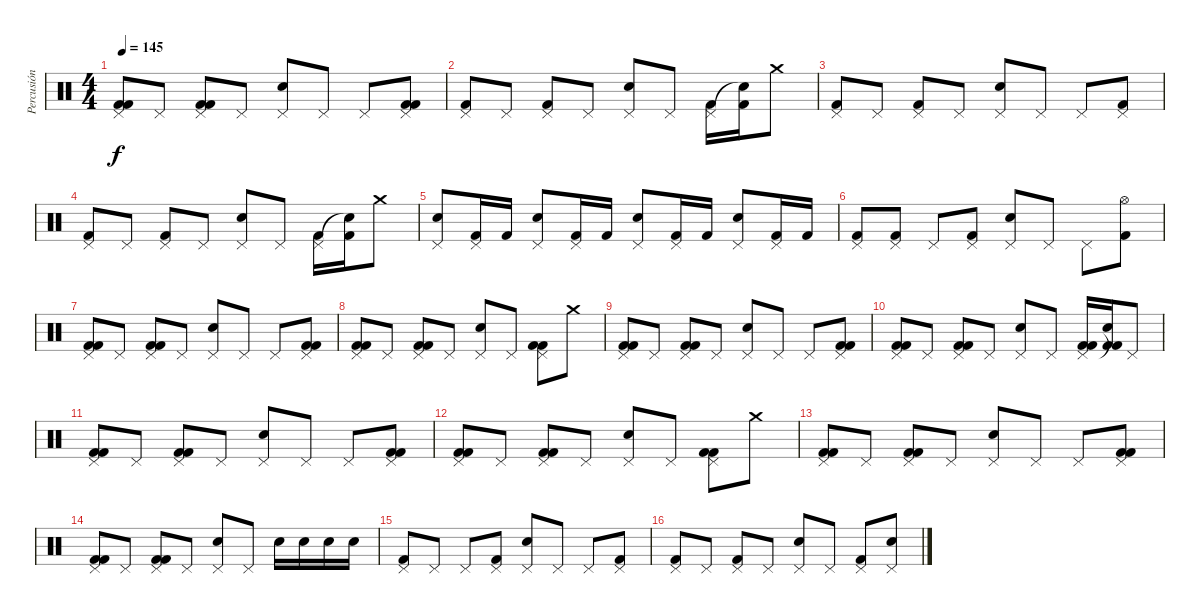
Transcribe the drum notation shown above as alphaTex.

\track ("Percusión" "Percusión") {instrument percussion}
\staff {score}
\articulation defaults
\ts (4 4)
\tempo 145
\clef neutral
\ks c
("Pedal Hi-Hat (hit)" "Kick (hit) 2" "Kick (hit) 2").8{dy f} "Pedal Hi-Hat (hit)".8 ("Pedal Hi-Hat (hit)" "Kick (hit) 2" "Kick (hit) 2").8 "Pedal Hi-Hat (hit)".8 ("Pedal Hi-Hat (hit)" "Snare (hit) 2").8 "Pedal Hi-Hat (hit)".8 "Pedal Hi-Hat (hit)".8 ("Pedal Hi-Hat (hit)" "Kick (hit) 2" "Kick (hit) 2").8 |
("Pedal Hi-Hat (hit)" "Kick (hit) 2").8 "Pedal Hi-Hat (hit)".8 ("Pedal Hi-Hat (hit)" "Kick (hit) 2").8 "Pedal Hi-Hat (hit)".8 ("Pedal Hi-Hat (hit)" "Snare (hit) 2").8 "Pedal Hi-Hat (hit)".8 ("Pedal Hi-Hat (hit)" "Kick (hit) 2").16 ("Snare (hit)"{t} "Kick (hit) 2").16 "Crash medium (hit)".8 |
("Pedal Hi-Hat (hit)" "Kick (hit) 2").8 "Pedal Hi-Hat (hit)".8 ("Pedal Hi-Hat (hit)" "Kick (hit) 2").8 "Pedal Hi-Hat (hit)".8 ("Pedal Hi-Hat (hit)" "Snare (hit) 2").8 "Pedal Hi-Hat (hit)".8 "Pedal Hi-Hat (hit)".8 ("Pedal Hi-Hat (hit)" "Kick (hit) 2").8 |
("Pedal Hi-Hat (hit)" "Kick (hit) 2").8 "Pedal Hi-Hat (hit)".8 ("Pedal Hi-Hat (hit)" "Kick (hit) 2").8 "Pedal Hi-Hat (hit)".8 ("Pedal Hi-Hat (hit)" "Snare (hit) 2").8 "Pedal Hi-Hat (hit)".8 ("Pedal Hi-Hat (hit)" "Kick (hit) 2").16 ("Snare (hit)"{t} "Kick (hit) 2").16 "Crash medium (hit)".8 |
("Pedal Hi-Hat (hit)" "Snare (hit) 2").8 ("Pedal Hi-Hat (hit)" "Kick (hit) 2").16 "Kick (hit) 2".16 ("Pedal Hi-Hat (hit)" "Snare (hit) 2").8 ("Pedal Hi-Hat (hit)" "Kick (hit) 2").16 "Kick (hit) 2".16 ("Pedal Hi-Hat (hit)" "Snare (hit) 2").8 ("Pedal Hi-Hat (hit)" "Kick (hit) 2").16 "Kick (hit) 2".16 ("Pedal Hi-Hat (hit)" "Snare (hit) 2").8 ("Pedal Hi-Hat (hit)" "Kick (hit) 2").16 "Kick (hit) 2".16 |
("Pedal Hi-Hat (hit)" "Kick (hit) 2").8 ("Pedal Hi-Hat (hit)" "Kick (hit) 2").8 "Pedal Hi-Hat (hit)".8 ("Pedal Hi-Hat (hit)" "Kick (hit) 2").8 ("Pedal Hi-Hat (hit)" "Snare (hit) 2").8 "Pedal Hi-Hat (hit)".8 "Pedal Hi-Hat (hit)".8 ("Hi-Hat (open)" "Kick (hit) 2").8 |
("Pedal Hi-Hat (hit)" "Kick (hit) 2" "Kick (hit) 2").8 "Pedal Hi-Hat (hit)".8 ("Pedal Hi-Hat (hit)" "Kick (hit) 2" "Kick (hit) 2").8 "Pedal Hi-Hat (hit)".8 ("Pedal Hi-Hat (hit)" "Snare (hit) 2").8 "Pedal Hi-Hat (hit)".8 "Pedal Hi-Hat (hit)".8 ("Pedal Hi-Hat (hit)" "Kick (hit) 2" "Kick (hit) 2").8 |
("Pedal Hi-Hat (hit)" "Kick (hit) 2" "Kick (hit) 2").8 "Pedal Hi-Hat (hit)".8 ("Pedal Hi-Hat (hit)" "Kick (hit) 2" "Kick (hit) 2").8 "Pedal Hi-Hat (hit)".8 ("Pedal Hi-Hat (hit)" "Snare (hit) 2").8 "Pedal Hi-Hat (hit)".8 ("Pedal Hi-Hat (hit)" "Kick (hit) 2" "Kick (hit) 2").8 "Crash medium (hit)".8 |
("Pedal Hi-Hat (hit)" "Kick (hit) 2" "Kick (hit) 2").8 "Pedal Hi-Hat (hit)".8 ("Pedal Hi-Hat (hit)" "Kick (hit) 2" "Kick (hit) 2").8 "Pedal Hi-Hat (hit)".8 ("Pedal Hi-Hat (hit)" "Snare (hit) 2").8 "Pedal Hi-Hat (hit)".8 "Pedal Hi-Hat (hit)".8 ("Pedal Hi-Hat (hit)" "Kick (hit) 2" "Kick (hit) 2").8 |
("Pedal Hi-Hat (hit)" "Kick (hit) 2" "Kick (hit) 2").8 "Pedal Hi-Hat (hit)".8 ("Pedal Hi-Hat (hit)" "Kick (hit) 2" "Kick (hit) 2").8 "Pedal Hi-Hat (hit)".8 ("Pedal Hi-Hat (hit)" "Snare (hit) 2").8 "Pedal Hi-Hat (hit)".8 ("Pedal Hi-Hat (hit)" "Kick (hit) 2" "Kick (hit) 2").16 ("Snare (hit)"{t} "Kick (hit) 2" "Kick (hit) 2").16 "Pedal Hi-Hat (hit)".8 |
("Pedal Hi-Hat (hit)" "Kick (hit) 2" "Kick (hit) 2").8 "Pedal Hi-Hat (hit)".8 ("Pedal Hi-Hat (hit)" "Kick (hit) 2" "Kick (hit) 2").8 "Pedal Hi-Hat (hit)".8 ("Pedal Hi-Hat (hit)" "Snare (hit) 2").8 "Pedal Hi-Hat (hit)".8 "Pedal Hi-Hat (hit)".8 ("Pedal Hi-Hat (hit)" "Kick (hit) 2" "Kick (hit) 2").8 |
("Pedal Hi-Hat (hit)" "Kick (hit) 2" "Kick (hit) 2").8 "Pedal Hi-Hat (hit)".8 ("Pedal Hi-Hat (hit)" "Kick (hit) 2" "Kick (hit) 2").8 "Pedal Hi-Hat (hit)".8 ("Pedal Hi-Hat (hit)" "Snare (hit) 2").8 "Pedal Hi-Hat (hit)".8 ("Pedal Hi-Hat (hit)" "Kick (hit) 2" "Kick (hit) 2").8 "Crash medium (hit)".8 |
("Pedal Hi-Hat (hit)" "Kick (hit) 2" "Kick (hit) 2").8 "Pedal Hi-Hat (hit)".8 ("Pedal Hi-Hat (hit)" "Kick (hit) 2" "Kick (hit) 2").8 "Pedal Hi-Hat (hit)".8 ("Pedal Hi-Hat (hit)" "Snare (hit) 2").8 "Pedal Hi-Hat (hit)".8 "Pedal Hi-Hat (hit)".8 ("Pedal Hi-Hat (hit)" "Kick (hit) 2" "Kick (hit) 2").8 |
("Pedal Hi-Hat (hit)" "Kick (hit) 2" "Kick (hit) 2").8 "Pedal Hi-Hat (hit)".8 ("Pedal Hi-Hat (hit)" "Kick (hit) 2" "Kick (hit) 2").8 "Pedal Hi-Hat (hit)".8 ("Pedal Hi-Hat (hit)" "Snare (hit) 2").8 "Pedal Hi-Hat (hit)".8 "Snare (hit) 2".16 "Snare (hit) 2".16 "Snare (hit) 2".16 "Snare (hit) 2".16 |
("Pedal Hi-Hat (hit)" "Kick (hit) 2").8 "Pedal Hi-Hat (hit)".8 "Pedal Hi-Hat (hit)".8 ("Pedal Hi-Hat (hit)" "Kick (hit) 2").8 ("Pedal Hi-Hat (hit)" "Snare (hit) 2").8 "Pedal Hi-Hat (hit)".8 "Pedal Hi-Hat (hit)".8 ("Pedal Hi-Hat (hit)" "Kick (hit) 2").8 |
("Pedal Hi-Hat (hit)" "Kick (hit) 2").8 "Pedal Hi-Hat (hit)".8 ("Pedal Hi-Hat (hit)" "Kick (hit) 2").8 "Pedal Hi-Hat (hit)".8 ("Pedal Hi-Hat (hit)" "Snare (hit) 2").8 "Pedal Hi-Hat (hit)".8 ("Pedal Hi-Hat (hit)" "Kick (hit) 2").8 ("Pedal Hi-Hat (hit)" "Snare (hit) 2").8
